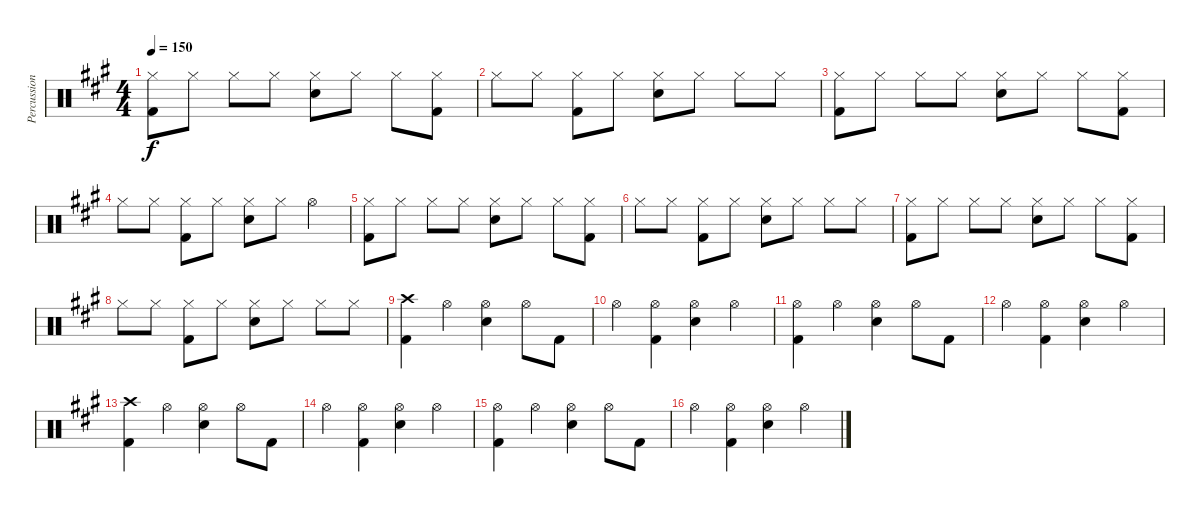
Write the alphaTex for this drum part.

\track ("Percussion" "Percussion") {instrument percussion}
\staff {score}
\articulation defaults
\ts (4 4)
\tempo 150
\clef neutral
\ks a
("Kick (hit) 2" "Hi-Hat (closed)").8{dy f} "Hi-Hat (closed)".8 "Hi-Hat (closed)".8 "Hi-Hat (closed)".8 ("Snare (hit) 2" "Hi-Hat (closed)").8 "Hi-Hat (closed)".8 "Hi-Hat (closed)".8 ("Kick (hit) 2" "Hi-Hat (closed)").8 |
"Hi-Hat (closed)".8 "Hi-Hat (closed)".8 ("Kick (hit) 2" "Hi-Hat (closed)").8 "Hi-Hat (closed)".8 ("Snare (hit) 2" "Hi-Hat (closed)").8 "Hi-Hat (closed)".8 "Hi-Hat (closed)".8 "Hi-Hat (closed)".8 |
("Kick (hit) 2" "Hi-Hat (closed)").8 "Hi-Hat (closed)".8 "Hi-Hat (closed)".8 "Hi-Hat (closed)".8 ("Snare (hit) 2" "Hi-Hat (closed)").8 "Hi-Hat (closed)".8 "Hi-Hat (closed)".8 ("Kick (hit) 2" "Hi-Hat (closed)").8 |
"Hi-Hat (closed)".8 "Hi-Hat (closed)".8 ("Kick (hit) 2" "Hi-Hat (closed)").8 "Hi-Hat (closed)".8 ("Snare (hit) 2" "Hi-Hat (closed)").8 "Hi-Hat (closed)".8 "Hi-Hat (open)".4 |
("Kick (hit) 2" "Hi-Hat (closed)").8 "Hi-Hat (closed)".8 "Hi-Hat (closed)".8 "Hi-Hat (closed)".8 ("Snare (hit) 2" "Hi-Hat (closed)").8 "Hi-Hat (closed)".8 "Hi-Hat (closed)".8 ("Kick (hit) 2" "Hi-Hat (closed)").8 |
"Hi-Hat (closed)".8 "Hi-Hat (closed)".8 ("Kick (hit) 2" "Hi-Hat (closed)").8 "Hi-Hat (closed)".8 ("Snare (hit) 2" "Hi-Hat (closed)").8 "Hi-Hat (closed)".8 "Hi-Hat (closed)".8 "Hi-Hat (closed)".8 |
("Kick (hit) 2" "Hi-Hat (closed)").8 "Hi-Hat (closed)".8 "Hi-Hat (closed)".8 "Hi-Hat (closed)".8 ("Snare (hit) 2" "Hi-Hat (closed)").8 "Hi-Hat (closed)".8 "Hi-Hat (closed)".8 ("Kick (hit) 2" "Hi-Hat (closed)").8 |
"Hi-Hat (closed)".8 "Hi-Hat (closed)".8 ("Kick (hit) 2" "Hi-Hat (closed)").8 "Hi-Hat (closed)".8 ("Snare (hit) 2" "Hi-Hat (closed)").8 "Hi-Hat (closed)".8 "Hi-Hat (closed)".8 "Hi-Hat (closed)".8 |
("Kick (hit) 2" "Crash high (hit)").4 "Hi-Hat (open)".4 ("Snare (hit) 2" "Hi-Hat (open)").4 "Hi-Hat (open)".8 "Kick (hit) 2".8 |
"Hi-Hat (open)".4 ("Kick (hit) 2" "Hi-Hat (open)").4 ("Snare (hit) 2" "Hi-Hat (open)").4 "Hi-Hat (open)".4 |
("Kick (hit) 2" "Hi-Hat (open)").4 "Hi-Hat (open)".4 ("Snare (hit) 2" "Hi-Hat (open)").4 "Hi-Hat (open)".8 "Kick (hit) 2".8 |
"Hi-Hat (open)".4 ("Kick (hit) 2" "Hi-Hat (open)").4 ("Snare (hit) 2" "Hi-Hat (open)").4 "Hi-Hat (open)".4 |
("Kick (hit) 2" "Crash high (hit)").4 "Hi-Hat (open)".4 ("Snare (hit) 2" "Hi-Hat (open)").4 "Hi-Hat (open)".8 "Kick (hit) 2".8 |
"Hi-Hat (open)".4 ("Kick (hit) 2" "Hi-Hat (open)").4 ("Snare (hit) 2" "Hi-Hat (open)").4 "Hi-Hat (open)".4 |
("Kick (hit) 2" "Hi-Hat (open)").4 "Hi-Hat (open)".4 ("Snare (hit) 2" "Hi-Hat (open)").4 "Hi-Hat (open)".8 "Kick (hit) 2".8 |
"Hi-Hat (open)".4 ("Kick (hit) 2" "Hi-Hat (open)").4 ("Snare (hit) 2" "Hi-Hat (open)").4 "Hi-Hat (open)".4
